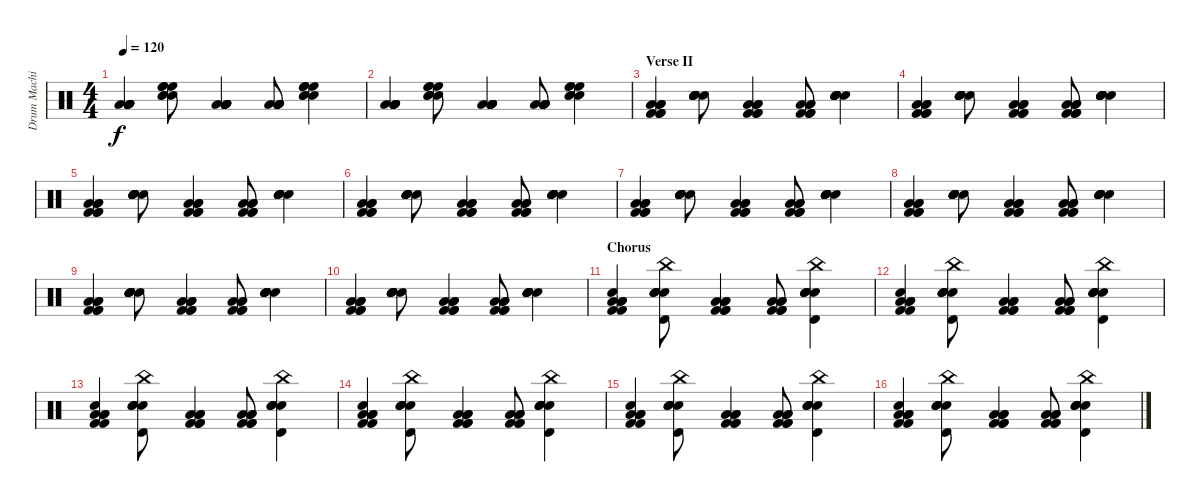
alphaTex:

\track ("Drum Machine" "Drum Machi") {instrument percussion}
\staff {score}
\articulation defaults
\ts (4 4)
\tempo 120
\clef neutral
\ks c
("Low Floor Tom (hit)" "Low Floor Tom (hit)" "Low Floor Tom (hit)" "Low Floor Tom (hit)" "Low Floor Tom (hit)" "Low Floor Tom (hit)").4{dy f} ("Electric Snare (hit)" "High Floor Tom (hit)" "Electric Snare (hit)" "High Floor Tom (hit)" "Electric Snare (hit)" "High Floor Tom (hit)").8 ("Low Floor Tom (hit)" "Low Floor Tom (hit)" "Low Floor Tom (hit)" "Low Floor Tom (hit)" "Low Floor Tom (hit)" "Low Floor Tom (hit)").4 ("Low Floor Tom (hit)" "Low Floor Tom (hit)" "Low Floor Tom (hit)" "Low Floor Tom (hit)" "Low Floor Tom (hit)" "Low Floor Tom (hit)").8 ("Electric Snare (hit)" "High Floor Tom (hit)" "Electric Snare (hit)" "High Floor Tom (hit)" "Electric Snare (hit)" "High Floor Tom (hit)").4 |
("Low Floor Tom (hit)" "Low Floor Tom (hit)" "Low Floor Tom (hit)" "Low Floor Tom (hit)" "Low Floor Tom (hit)" "Low Floor Tom (hit)").4 ("Electric Snare (hit)" "High Floor Tom (hit)" "Electric Snare (hit)" "High Floor Tom (hit)" "Electric Snare (hit)" "High Floor Tom (hit)").8 ("Low Floor Tom (hit)" "Low Floor Tom (hit)" "Low Floor Tom (hit)" "Low Floor Tom (hit)" "Low Floor Tom (hit)" "Low Floor Tom (hit)").4 ("Low Floor Tom (hit)" "Low Floor Tom (hit)" "Low Floor Tom (hit)" "Low Floor Tom (hit)" "Low Floor Tom (hit)" "Low Floor Tom (hit)").8 ("Electric Snare (hit)" "High Floor Tom (hit)" "Electric Snare (hit)" "High Floor Tom (hit)" "Electric Snare (hit)" "High Floor Tom (hit)").4 |
\section ("" "Verse II")
("Kick (hit) 2" "Low Floor Tom (hit)" "Kick (hit) 2" "Low Floor Tom (hit)" "Kick (hit) 2" "Low Floor Tom (hit)").4 ("Electric Snare (hit)" "Snare (hit) 2" "Electric Snare (hit)" "Snare (hit) 2" "Electric Snare (hit)" "Snare (hit) 2").8 ("Kick (hit) 2" "Low Floor Tom (hit)" "Kick (hit) 2" "Low Floor Tom (hit)" "Kick (hit) 2" "Low Floor Tom (hit)").4 ("Kick (hit) 2" "Low Floor Tom (hit)" "Kick (hit) 2" "Low Floor Tom (hit)" "Kick (hit) 2" "Low Floor Tom (hit)").8 ("Electric Snare (hit)" "Snare (hit) 2" "Electric Snare (hit)" "Snare (hit) 2" "Electric Snare (hit)" "Snare (hit) 2").4 |
("Kick (hit) 2" "Low Floor Tom (hit)" "Kick (hit) 2" "Low Floor Tom (hit)" "Kick (hit) 2" "Low Floor Tom (hit)").4 ("Electric Snare (hit)" "Snare (hit) 2" "Electric Snare (hit)" "Snare (hit) 2" "Electric Snare (hit)" "Snare (hit) 2").8 ("Kick (hit) 2" "Low Floor Tom (hit)" "Kick (hit) 2" "Low Floor Tom (hit)" "Kick (hit) 2" "Low Floor Tom (hit)").4 ("Kick (hit) 2" "Low Floor Tom (hit)" "Kick (hit) 2" "Low Floor Tom (hit)" "Kick (hit) 2" "Low Floor Tom (hit)").8 ("Electric Snare (hit)" "Snare (hit) 2" "Electric Snare (hit)" "Snare (hit) 2" "Electric Snare (hit)" "Snare (hit) 2").4 |
("Kick (hit) 2" "Low Floor Tom (hit)" "Kick (hit) 2" "Low Floor Tom (hit)" "Kick (hit) 2" "Low Floor Tom (hit)").4 ("Electric Snare (hit)" "Snare (hit) 2" "Electric Snare (hit)" "Snare (hit) 2" "Electric Snare (hit)" "Snare (hit) 2").8 ("Kick (hit) 2" "Low Floor Tom (hit)" "Kick (hit) 2" "Low Floor Tom (hit)" "Kick (hit) 2" "Low Floor Tom (hit)").4 ("Kick (hit) 2" "Low Floor Tom (hit)" "Kick (hit) 2" "Low Floor Tom (hit)" "Kick (hit) 2" "Low Floor Tom (hit)").8 ("Electric Snare (hit)" "Snare (hit) 2" "Electric Snare (hit)" "Snare (hit) 2" "Electric Snare (hit)" "Snare (hit) 2").4 |
("Kick (hit) 2" "Low Floor Tom (hit)" "Kick (hit) 2" "Low Floor Tom (hit)" "Kick (hit) 2" "Low Floor Tom (hit)").4 ("Electric Snare (hit)" "Snare (hit) 2" "Electric Snare (hit)" "Snare (hit) 2" "Electric Snare (hit)" "Snare (hit) 2").8 ("Kick (hit) 2" "Low Floor Tom (hit)" "Kick (hit) 2" "Low Floor Tom (hit)" "Kick (hit) 2" "Low Floor Tom (hit)").4 ("Kick (hit) 2" "Low Floor Tom (hit)" "Kick (hit) 2" "Low Floor Tom (hit)" "Kick (hit) 2" "Low Floor Tom (hit)").8 ("Electric Snare (hit)" "Snare (hit) 2" "Electric Snare (hit)" "Snare (hit) 2" "Electric Snare (hit)" "Snare (hit) 2").4 |
("Kick (hit) 2" "Low Floor Tom (hit)" "Kick (hit) 2" "Low Floor Tom (hit)" "Kick (hit) 2" "Low Floor Tom (hit)").4 ("Electric Snare (hit)" "Snare (hit) 2" "Electric Snare (hit)" "Snare (hit) 2" "Electric Snare (hit)" "Snare (hit) 2").8 ("Kick (hit) 2" "Low Floor Tom (hit)" "Kick (hit) 2" "Low Floor Tom (hit)" "Kick (hit) 2" "Low Floor Tom (hit)").4 ("Kick (hit) 2" "Low Floor Tom (hit)" "Kick (hit) 2" "Low Floor Tom (hit)" "Kick (hit) 2" "Low Floor Tom (hit)").8 ("Electric Snare (hit)" "Snare (hit) 2" "Electric Snare (hit)" "Snare (hit) 2" "Electric Snare (hit)" "Snare (hit) 2").4 |
("Kick (hit) 2" "Low Floor Tom (hit)" "Kick (hit) 2" "Low Floor Tom (hit)" "Kick (hit) 2" "Low Floor Tom (hit)").4 ("Electric Snare (hit)" "Snare (hit) 2" "Electric Snare (hit)" "Snare (hit) 2" "Electric Snare (hit)" "Snare (hit) 2").8 ("Kick (hit) 2" "Low Floor Tom (hit)" "Kick (hit) 2" "Low Floor Tom (hit)" "Kick (hit) 2" "Low Floor Tom (hit)").4 ("Kick (hit) 2" "Low Floor Tom (hit)" "Kick (hit) 2" "Low Floor Tom (hit)" "Kick (hit) 2" "Low Floor Tom (hit)").8 ("Electric Snare (hit)" "Snare (hit) 2" "Electric Snare (hit)" "Snare (hit) 2" "Electric Snare (hit)" "Snare (hit) 2").4 |
("Kick (hit) 2" "Low Floor Tom (hit)" "Kick (hit) 2" "Low Floor Tom (hit)" "Kick (hit) 2" "Low Floor Tom (hit)").4 ("Electric Snare (hit)" "Snare (hit) 2" "Electric Snare (hit)" "Snare (hit) 2" "Electric Snare (hit)" "Snare (hit) 2").8 ("Kick (hit) 2" "Low Floor Tom (hit)" "Kick (hit) 2" "Low Floor Tom (hit)" "Kick (hit) 2" "Low Floor Tom (hit)").4 ("Kick (hit) 2" "Low Floor Tom (hit)" "Kick (hit) 2" "Low Floor Tom (hit)" "Kick (hit) 2" "Low Floor Tom (hit)").8 ("Electric Snare (hit)" "Snare (hit) 2" "Electric Snare (hit)" "Snare (hit) 2" "Electric Snare (hit)" "Snare (hit) 2").4 |
("Kick (hit) 2" "Low Floor Tom (hit)" "Kick (hit) 2" "Low Floor Tom (hit)" "Kick (hit) 2" "Low Floor Tom (hit)").4 ("Electric Snare (hit)" "Snare (hit) 2" "Electric Snare (hit)" "Snare (hit) 2" "Electric Snare (hit)" "Snare (hit) 2").8 ("Kick (hit) 2" "Low Floor Tom (hit)" "Kick (hit) 2" "Low Floor Tom (hit)" "Kick (hit) 2" "Low Floor Tom (hit)").4 ("Kick (hit) 2" "Low Floor Tom (hit)" "Kick (hit) 2" "Low Floor Tom (hit)" "Kick (hit) 2" "Low Floor Tom (hit)").8 ("Electric Snare (hit)" "Snare (hit) 2" "Electric Snare (hit)" "Snare (hit) 2" "Electric Snare (hit)" "Snare (hit) 2").4 |
\section ("" "Chorus")
("Electric Snare (hit)" "Low Floor Tom (hit)" "Kick (hit) 2" "Low Floor Tom (hit)" "Kick (hit) 2" "Low Floor Tom (hit)").4 ("Timbale high (hit)" "China (hit)" "Electric Snare (hit)" "Electric Snare (hit)" "Electric Snare (hit)" "Electric Snare (hit)").8 ("Kick (hit) 2" "Low Floor Tom (hit)" "Kick (hit) 2" "Low Floor Tom (hit)" "Kick (hit) 2" "Low Floor Tom (hit)").4 ("Kick (hit) 2" "Low Floor Tom (hit)" "Kick (hit) 2" "Low Floor Tom (hit)" "Kick (hit) 2" "Low Floor Tom (hit)").8 ("Timbale high (hit)" "China (hit)" "Electric Snare (hit)" "Electric Snare (hit)" "Electric Snare (hit)" "Electric Snare (hit)").4 |
("Electric Snare (hit)" "Low Floor Tom (hit)" "Kick (hit) 2" "Low Floor Tom (hit)" "Kick (hit) 2" "Low Floor Tom (hit)").4 ("Timbale high (hit)" "China (hit)" "Electric Snare (hit)" "Electric Snare (hit)" "Electric Snare (hit)" "Electric Snare (hit)").8 ("Kick (hit) 2" "Low Floor Tom (hit)" "Kick (hit) 2" "Low Floor Tom (hit)" "Kick (hit) 2" "Low Floor Tom (hit)").4 ("Kick (hit) 2" "Low Floor Tom (hit)" "Kick (hit) 2" "Low Floor Tom (hit)" "Kick (hit) 2" "Low Floor Tom (hit)").8 ("Timbale high (hit)" "China (hit)" "Electric Snare (hit)" "Electric Snare (hit)" "Electric Snare (hit)" "Electric Snare (hit)").4 |
("Electric Snare (hit)" "Low Floor Tom (hit)" "Kick (hit) 2" "Low Floor Tom (hit)" "Kick (hit) 2" "Low Floor Tom (hit)").4 ("Timbale high (hit)" "China (hit)" "Electric Snare (hit)" "Electric Snare (hit)" "Electric Snare (hit)" "Electric Snare (hit)").8 ("Kick (hit) 2" "Low Floor Tom (hit)" "Kick (hit) 2" "Low Floor Tom (hit)" "Kick (hit) 2" "Low Floor Tom (hit)").4 ("Kick (hit) 2" "Low Floor Tom (hit)" "Kick (hit) 2" "Low Floor Tom (hit)" "Kick (hit) 2" "Low Floor Tom (hit)").8 ("Timbale high (hit)" "China (hit)" "Electric Snare (hit)" "Electric Snare (hit)" "Electric Snare (hit)" "Electric Snare (hit)").4 |
("Electric Snare (hit)" "Low Floor Tom (hit)" "Kick (hit) 2" "Low Floor Tom (hit)" "Kick (hit) 2" "Low Floor Tom (hit)").4 ("Timbale high (hit)" "China (hit)" "Electric Snare (hit)" "Electric Snare (hit)" "Electric Snare (hit)" "Electric Snare (hit)").8 ("Kick (hit) 2" "Low Floor Tom (hit)" "Kick (hit) 2" "Low Floor Tom (hit)" "Kick (hit) 2" "Low Floor Tom (hit)").4 ("Kick (hit) 2" "Low Floor Tom (hit)" "Kick (hit) 2" "Low Floor Tom (hit)" "Kick (hit) 2" "Low Floor Tom (hit)").8 ("Timbale high (hit)" "China (hit)" "Electric Snare (hit)" "Electric Snare (hit)" "Electric Snare (hit)" "Electric Snare (hit)").4 |
("Electric Snare (hit)" "Low Floor Tom (hit)" "Kick (hit) 2" "Low Floor Tom (hit)" "Kick (hit) 2" "Low Floor Tom (hit)").4 ("Timbale high (hit)" "China (hit)" "Electric Snare (hit)" "Electric Snare (hit)" "Electric Snare (hit)" "Electric Snare (hit)").8 ("Kick (hit) 2" "Low Floor Tom (hit)" "Kick (hit) 2" "Low Floor Tom (hit)" "Kick (hit) 2" "Low Floor Tom (hit)").4 ("Kick (hit) 2" "Low Floor Tom (hit)" "Kick (hit) 2" "Low Floor Tom (hit)" "Kick (hit) 2" "Low Floor Tom (hit)").8 ("Timbale high (hit)" "China (hit)" "Electric Snare (hit)" "Electric Snare (hit)" "Electric Snare (hit)" "Electric Snare (hit)").4 |
("Electric Snare (hit)" "Low Floor Tom (hit)" "Kick (hit) 2" "Low Floor Tom (hit)" "Kick (hit) 2" "Low Floor Tom (hit)").4 ("Timbale high (hit)" "China (hit)" "Electric Snare (hit)" "Electric Snare (hit)" "Electric Snare (hit)" "Electric Snare (hit)").8 ("Kick (hit) 2" "Low Floor Tom (hit)" "Kick (hit) 2" "Low Floor Tom (hit)" "Kick (hit) 2" "Low Floor Tom (hit)").4 ("Kick (hit) 2" "Low Floor Tom (hit)" "Kick (hit) 2" "Low Floor Tom (hit)" "Kick (hit) 2" "Low Floor Tom (hit)").8 ("Timbale high (hit)" "China (hit)" "Electric Snare (hit)" "Electric Snare (hit)" "Electric Snare (hit)" "Electric Snare (hit)").4
